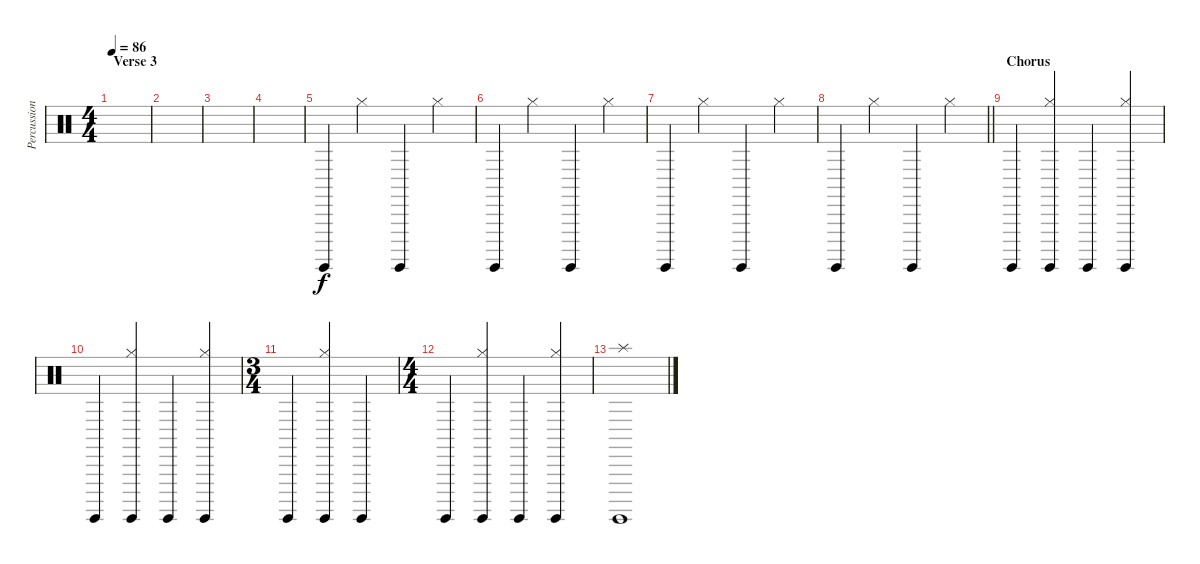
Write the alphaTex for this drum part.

\track ("Percussion" "Percussion") {instrument percussion}
\staff {score}
\articulation defaults
\ts (4 4)
\section ("" "Verse 3")
\tempo 86
\clef neutral
\ks c
|
|
|
|
"Surdo (hit)".4 "Hi-Hat (closed)".4 "Surdo (hit)".4 "Hi-Hat (closed)".4 |
"Surdo (hit)".4 "Hi-Hat (closed)".4 "Surdo (hit)".4 "Hi-Hat (closed)".4 |
"Surdo (hit)".4 "Hi-Hat (closed)".4 "Surdo (hit)".4 "Hi-Hat (closed)".4 |
\barLineRight lightlight "Surdo (hit)".4 "Hi-Hat (closed)".4 "Surdo (hit)".4 "Hi-Hat (closed)".4
|
\section ("" "Chorus")
"Surdo (hit)".4 ("Hi-Hat (closed)" "Surdo (hit)").4 "Surdo (hit)".4 ("Hi-Hat (closed)" "Surdo (hit)").4 |
"Surdo (hit)".4 ("Hi-Hat (closed)" "Surdo (hit)").4 "Surdo (hit)".4 ("Hi-Hat (closed)" "Surdo (hit)").4 |
\ts (3 4)
"Surdo (hit)".4 ("Hi-Hat (closed)" "Surdo (hit)").4 "Surdo (hit)".4 |
\ts (4 4)
"Surdo (hit)".4 ("Hi-Hat (closed)" "Surdo (hit)").4 "Surdo (hit)".4 ("Hi-Hat (closed)" "Surdo (hit)").4 |
("Splash (hit)" "Surdo (hit)").1
